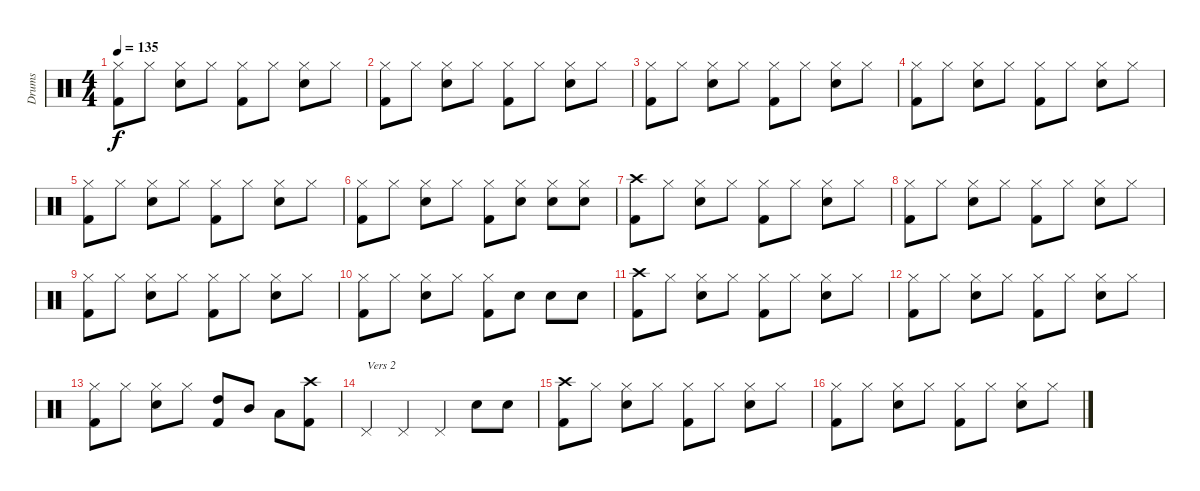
\track ("Drums" "Drums") {instrument percussion}
\staff {score}
\articulation defaults
\ts (4 4)
\tempo 135
\clef neutral
\ks c
("Hi-Hat (closed)" "Kick (hit) 2").8{dy f} "Hi-Hat (closed)".8 ("Hi-Hat (closed)" "Snare (hit) 2").8 "Hi-Hat (closed)".8 ("Hi-Hat (closed)" "Kick (hit) 2").8 "Hi-Hat (closed)".8 ("Hi-Hat (closed)" "Snare (hit) 2").8 "Hi-Hat (closed)".8 |
("Hi-Hat (closed)" "Kick (hit) 2").8 "Hi-Hat (closed)".8 ("Hi-Hat (closed)" "Snare (hit) 2").8 "Hi-Hat (closed)".8 ("Hi-Hat (closed)" "Kick (hit) 2").8 "Hi-Hat (closed)".8 ("Hi-Hat (closed)" "Snare (hit) 2").8 "Hi-Hat (closed)".8 |
("Hi-Hat (closed)" "Kick (hit) 2").8 "Hi-Hat (closed)".8 ("Hi-Hat (closed)" "Snare (hit) 2").8 "Hi-Hat (closed)".8 ("Hi-Hat (closed)" "Kick (hit) 2").8 "Hi-Hat (closed)".8 ("Hi-Hat (closed)" "Snare (hit) 2").8 "Hi-Hat (closed)".8 |
("Hi-Hat (closed)" "Kick (hit) 2").8 "Hi-Hat (closed)".8 ("Hi-Hat (closed)" "Snare (hit) 2").8 "Hi-Hat (closed)".8 ("Hi-Hat (closed)" "Kick (hit) 2").8 "Hi-Hat (closed)".8 ("Hi-Hat (closed)" "Snare (hit) 2").8 "Hi-Hat (closed)".8 |
("Hi-Hat (closed)" "Kick (hit) 2").8 "Hi-Hat (closed)".8 ("Hi-Hat (closed)" "Snare (hit) 2").8 "Hi-Hat (closed)".8 ("Hi-Hat (closed)" "Kick (hit) 2").8 "Hi-Hat (closed)".8 ("Hi-Hat (closed)" "Snare (hit) 2").8 "Hi-Hat (closed)".8 |
("Hi-Hat (closed)" "Kick (hit) 2").8 "Hi-Hat (closed)".8 ("Hi-Hat (closed)" "Snare (hit) 2").8 "Hi-Hat (closed)".8 ("Hi-Hat (closed)" "Kick (hit) 2").8 ("Hi-Hat (closed)" "Snare (hit) 2").8 ("Hi-Hat (closed)" "Snare (hit) 2").8 ("Hi-Hat (closed)" "Snare (hit) 2").8 |
("Crash high (hit)" "Kick (hit) 2").8 "Hi-Hat (closed)".8 ("Hi-Hat (closed)" "Snare (hit) 2").8 "Hi-Hat (closed)".8 ("Hi-Hat (closed)" "Kick (hit) 2").8 "Hi-Hat (closed)".8 ("Hi-Hat (closed)" "Snare (hit) 2").8 "Hi-Hat (closed)".8 |
("Hi-Hat (closed)" "Kick (hit) 2").8 "Hi-Hat (closed)".8 ("Hi-Hat (closed)" "Snare (hit) 2").8 "Hi-Hat (closed)".8 ("Hi-Hat (closed)" "Kick (hit) 2").8 "Hi-Hat (closed)".8 ("Hi-Hat (closed)" "Snare (hit) 2").8 "Hi-Hat (closed)".8 |
("Hi-Hat (closed)" "Kick (hit) 2").8 "Hi-Hat (closed)".8 ("Hi-Hat (closed)" "Snare (hit) 2").8 "Hi-Hat (closed)".8 ("Hi-Hat (closed)" "Kick (hit) 2").8 "Hi-Hat (closed)".8 ("Hi-Hat (closed)" "Snare (hit) 2").8 "Hi-Hat (closed)".8 |
("Hi-Hat (closed)" "Kick (hit) 2").8 "Hi-Hat (closed)".8 ("Hi-Hat (closed)" "Snare (hit) 2").8 "Hi-Hat (closed)".8 ("Hi-Hat (closed)" "Kick (hit) 2").8 "Snare (hit) 2".8 "Snare (hit) 2".8 "Snare (hit) 2".8 |
("Crash high (hit)" "Kick (hit) 2").8 "Hi-Hat (closed)".8 ("Hi-Hat (closed)" "Snare (hit) 2").8 "Hi-Hat (closed)".8 ("Hi-Hat (closed)" "Kick (hit) 2").8 "Hi-Hat (closed)".8 ("Hi-Hat (closed)" "Snare (hit) 2").8 "Hi-Hat (closed)".8 |
("Hi-Hat (closed)" "Kick (hit) 2").8 "Hi-Hat (closed)".8 ("Hi-Hat (closed)" "Snare (hit) 2").8 "Hi-Hat (closed)".8 ("Hi-Hat (closed)" "Kick (hit) 2").8 "Hi-Hat (closed)".8 ("Hi-Hat (closed)" "Snare (hit) 2").8 "Hi-Hat (closed)".8 |
("Hi-Hat (closed)" "Kick (hit) 2").8 "Hi-Hat (closed)".8 ("Hi-Hat (closed)" "Snare (hit) 2").8 "Hi-Hat (closed)".8 ("High Tom (hit)" "Kick (hit) 2").8 "Mid Tom (hit)".8 "Low Tom (hit)".8 ("Crash high (hit)" "Kick (hit) 2").8 |
"Pedal Hi-Hat (hit)".4{txt "Vers 2"} "Pedal Hi-Hat (hit)".4 "Pedal Hi-Hat (hit)".4 "Snare (hit) 2".8 "Snare (hit) 2".8 |
("Crash high (hit)" "Kick (hit) 2").8 "Hi-Hat (closed)".8 ("Hi-Hat (closed)" "Snare (hit) 2").8 "Hi-Hat (closed)".8 ("Hi-Hat (closed)" "Kick (hit) 2").8 "Hi-Hat (closed)".8 ("Hi-Hat (closed)" "Snare (hit) 2").8 "Hi-Hat (closed)".8 |
("Hi-Hat (closed)" "Kick (hit) 2").8 "Hi-Hat (closed)".8 ("Hi-Hat (closed)" "Snare (hit) 2").8 "Hi-Hat (closed)".8 ("Hi-Hat (closed)" "Kick (hit) 2").8 "Hi-Hat (closed)".8 ("Hi-Hat (closed)" "Snare (hit) 2").8 "Hi-Hat (closed)".8
